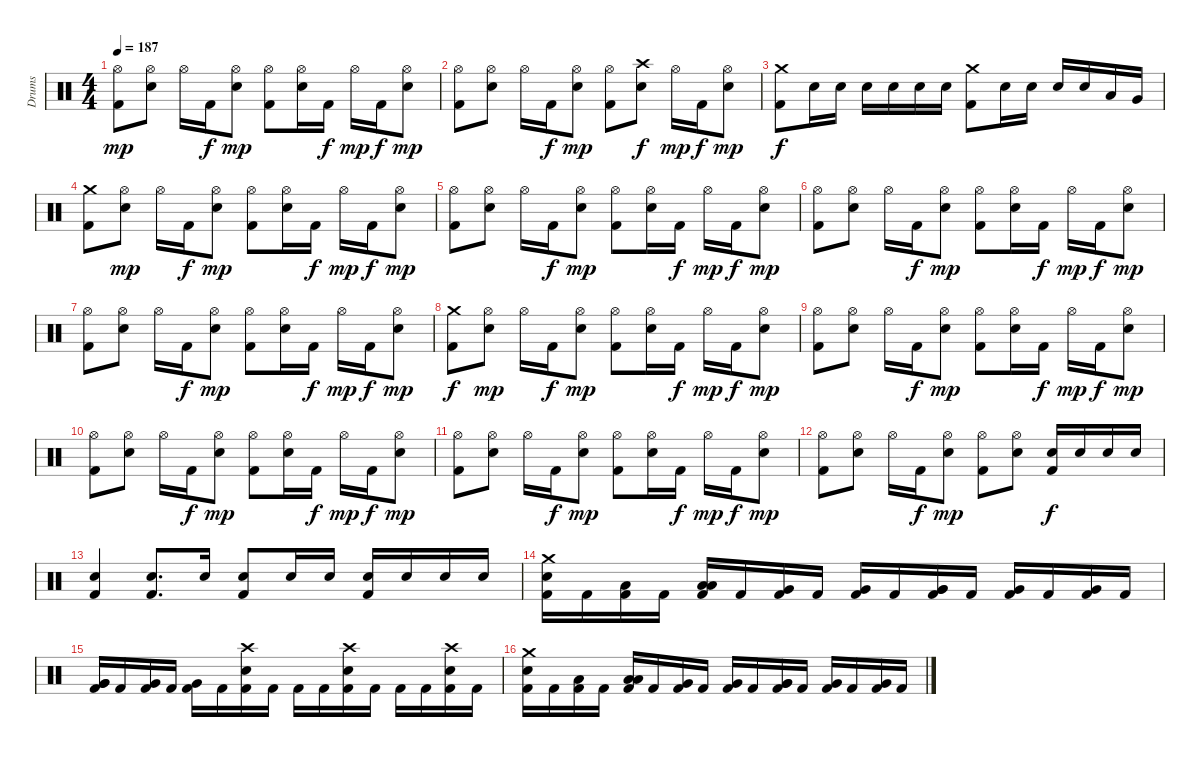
\track ("Drums" "Drums") {instrument percussion}
\staff {score}
\articulation defaults
\ts (4 4)
\tempo 187
\clef neutral
\ks c
("Hi-Hat (open)" "Kick (hit) 2").8{dy mp} ("Hi-Hat (open)" "Snare (hit) 2").8 "Hi-Hat (open)".16 "Kick (hit) 2".16{dy f} ("Hi-Hat (open)" "Snare (hit) 2").8{dy mp} ("Hi-Hat (open)" "Kick (hit) 2").8 ("Hi-Hat (open)" "Snare (hit) 2").16 "Kick (hit) 2".16{dy f} "Hi-Hat (open)".16{dy mp} "Kick (hit) 2".16{dy f} ("Hi-Hat (open)" "Snare (hit) 2").8{dy mp} |
("Hi-Hat (open)" "Kick (hit) 2").8 ("Hi-Hat (open)" "Snare (hit) 2").8 "Hi-Hat (open)".16 "Kick (hit) 2".16{dy f} ("Hi-Hat (open)" "Snare (hit) 2").8{dy mp} ("Hi-Hat (open)" "Kick (hit) 2").8 ("Crash high (hit)" "Snare (hit) 2").8{dy f} "Hi-Hat (open)".16{dy mp} "Kick (hit) 2".16{dy f} ("Hi-Hat (open)" "Snare (hit) 2").8{dy mp} |
("Crash medium (hit)" "Kick (hit) 2").8{dy f} "Snare (hit) 2".16 "Snare (hit) 2".16 "Snare (hit) 2".16 "Snare (hit) 2".16 "Snare (hit) 2".16 "Snare (hit) 2".16 ("Crash medium (hit)" "Kick (hit) 2").8 "Snare (hit) 2".16 "Snare (hit) 2".16 "Snare (hit) 2".16 "Snare (hit) 2".16 "Low Tom (hit)".16 "Very Low Tom (hit)".16 |
("Crash medium (hit)" "Kick (hit) 2").8 ("Hi-Hat (open)" "Snare (hit) 2").8{dy mp} "Hi-Hat (open)".16 "Kick (hit) 2".16{dy f} ("Hi-Hat (open)" "Snare (hit) 2").8{dy mp} ("Hi-Hat (open)" "Kick (hit) 2").8 ("Hi-Hat (open)" "Snare (hit) 2").16 "Kick (hit) 2".16{dy f} "Hi-Hat (open)".16{dy mp} "Kick (hit) 2".16{dy f} ("Hi-Hat (open)" "Snare (hit) 2").8{dy mp} |
("Hi-Hat (open)" "Kick (hit) 2").8 ("Hi-Hat (open)" "Snare (hit) 2").8 "Hi-Hat (open)".16 "Kick (hit) 2".16{dy f} ("Hi-Hat (open)" "Snare (hit) 2").8{dy mp} ("Hi-Hat (open)" "Kick (hit) 2").8 ("Hi-Hat (open)" "Snare (hit) 2").16 "Kick (hit) 2".16{dy f} "Hi-Hat (open)".16{dy mp} "Kick (hit) 2".16{dy f} ("Hi-Hat (open)" "Snare (hit) 2").8{dy mp} |
("Hi-Hat (open)" "Kick (hit) 2").8 ("Hi-Hat (open)" "Snare (hit) 2").8 "Hi-Hat (open)".16 "Kick (hit) 2".16{dy f} ("Hi-Hat (open)" "Snare (hit) 2").8{dy mp} ("Hi-Hat (open)" "Kick (hit) 2").8 ("Hi-Hat (open)" "Snare (hit) 2").16 "Kick (hit) 2".16{dy f} "Hi-Hat (open)".16{dy mp} "Kick (hit) 2".16{dy f} ("Hi-Hat (open)" "Snare (hit) 2").8{dy mp} |
("Hi-Hat (open)" "Kick (hit) 2").8 ("Hi-Hat (open)" "Snare (hit) 2").8 "Hi-Hat (open)".16 "Kick (hit) 2".16{dy f} ("Hi-Hat (open)" "Snare (hit) 2").8{dy mp} ("Hi-Hat (open)" "Kick (hit) 2").8 ("Hi-Hat (open)" "Snare (hit) 2").16 "Kick (hit) 2".16{dy f} "Hi-Hat (open)".16{dy mp} "Kick (hit) 2".16{dy f} ("Hi-Hat (open)" "Snare (hit) 2").8{dy mp} |
("Crash medium (hit)" "Kick (hit) 2").8{dy f} ("Hi-Hat (open)" "Snare (hit) 2").8{dy mp} "Hi-Hat (open)".16 "Kick (hit) 2".16{dy f} ("Hi-Hat (open)" "Snare (hit) 2").8{dy mp} ("Hi-Hat (open)" "Kick (hit) 2").8 ("Hi-Hat (open)" "Snare (hit) 2").16 "Kick (hit) 2".16{dy f} "Hi-Hat (open)".16{dy mp} "Kick (hit) 2".16{dy f} ("Hi-Hat (open)" "Snare (hit) 2").8{dy mp} |
("Hi-Hat (open)" "Kick (hit) 2").8 ("Hi-Hat (open)" "Snare (hit) 2").8 "Hi-Hat (open)".16 "Kick (hit) 2".16{dy f} ("Hi-Hat (open)" "Snare (hit) 2").8{dy mp} ("Hi-Hat (open)" "Kick (hit) 2").8 ("Hi-Hat (open)" "Snare (hit) 2").16 "Kick (hit) 2".16{dy f} "Hi-Hat (open)".16{dy mp} "Kick (hit) 2".16{dy f} ("Hi-Hat (open)" "Snare (hit) 2").8{dy mp} |
("Hi-Hat (open)" "Kick (hit) 2").8 ("Hi-Hat (open)" "Snare (hit) 2").8 "Hi-Hat (open)".16 "Kick (hit) 2".16{dy f} ("Hi-Hat (open)" "Snare (hit) 2").8{dy mp} ("Hi-Hat (open)" "Kick (hit) 2").8 ("Hi-Hat (open)" "Snare (hit) 2").16 "Kick (hit) 2".16{dy f} "Hi-Hat (open)".16{dy mp} "Kick (hit) 2".16{dy f} ("Hi-Hat (open)" "Snare (hit) 2").8{dy mp} |
("Hi-Hat (open)" "Kick (hit) 2").8 ("Hi-Hat (open)" "Snare (hit) 2").8 "Hi-Hat (open)".16 "Kick (hit) 2".16{dy f} ("Hi-Hat (open)" "Snare (hit) 2").8{dy mp} ("Hi-Hat (open)" "Kick (hit) 2").8 ("Hi-Hat (open)" "Snare (hit) 2").16 "Kick (hit) 2".16{dy f} "Hi-Hat (open)".16{dy mp} "Kick (hit) 2".16{dy f} ("Hi-Hat (open)" "Snare (hit) 2").8{dy mp} |
("Hi-Hat (open)" "Kick (hit) 2").8 ("Hi-Hat (open)" "Snare (hit) 2").8 "Hi-Hat (open)".16 "Kick (hit) 2".16{dy f} ("Hi-Hat (open)" "Snare (hit) 2").8{dy mp} ("Hi-Hat (open)" "Kick (hit) 2").8 ("Hi-Hat (open)" "Snare (hit) 2").8 ("Snare (hit) 2" "Kick (hit) 2").16{dy f} "Snare (hit) 2".16 "Snare (hit) 2".16 "Snare (hit) 2".16 |
("Snare (hit) 2" "Kick (hit) 2").4 ("Snare (hit) 2" "Kick (hit) 2").8{d} "Snare (hit) 2".16 ("Snare (hit) 2" "Kick (hit) 2").8 "Snare (hit) 2".16 "Snare (hit) 2".16 ("Snare (hit) 2" "Kick (hit) 2").16 "Snare (hit) 2".16 "Snare (hit) 2".16 "Snare (hit) 2".16 |
("Crash medium (hit)" "Snare (hit) 2" "Kick (hit) 2").16 "Kick (hit) 2".16 ("Low Floor Tom (hit)" "Kick (hit) 2").16 "Kick (hit) 2".16 ("Low Floor Tom (hit)" "Low Floor Tom (hit)" "Kick (hit) 2").16 "Kick (hit) 2".16 ("Very Low Tom (hit)" "Kick (hit) 2").16 "Kick (hit) 2".16 ("Very Low Tom (hit)" "Kick (hit) 2").16 "Kick (hit) 2".16 ("Very Low Tom (hit)" "Very Low Tom (hit)" "Kick (hit) 2").16 "Kick (hit) 2".16 ("Very Low Tom (hit)" "Kick (hit) 2").16 "Kick (hit) 2".16 ("Very Low Tom (hit)" "Kick (hit) 2").16 "Kick (hit) 2".16 |
("Very Low Tom (hit)" "Very Low Tom (hit)" "Kick (hit) 2").16 "Kick (hit) 2".16 ("Very Low Tom (hit)" "Kick (hit) 2").16 "Kick (hit) 2".16 ("Very Low Tom (hit)" "Kick (hit) 2").16 "Kick (hit) 2".16 ("Crash high (hit)" "Snare (hit) 2" "Kick (hit) 2").16 "Kick (hit) 2".16 "Kick (hit) 2".16 "Kick (hit) 2".16 ("Crash high (hit)" "Snare (hit) 2" "Kick (hit) 2").16 "Kick (hit) 2".16 "Kick (hit) 2".16 "Kick (hit) 2".16 ("Crash high (hit)" "Snare (hit) 2" "Kick (hit) 2").16 "Kick (hit) 2".16 |
("Crash medium (hit)" "Snare (hit) 2" "Kick (hit) 2").16 "Kick (hit) 2".16 ("Low Floor Tom (hit)" "Kick (hit) 2").16 "Kick (hit) 2".16 ("Low Floor Tom (hit)" "Low Floor Tom (hit)" "Kick (hit) 2").16 "Kick (hit) 2".16 ("Very Low Tom (hit)" "Kick (hit) 2").16 "Kick (hit) 2".16 ("Very Low Tom (hit)" "Kick (hit) 2").16 "Kick (hit) 2".16 ("Very Low Tom (hit)" "Very Low Tom (hit)" "Kick (hit) 2").16 "Kick (hit) 2".16 ("Very Low Tom (hit)" "Kick (hit) 2").16 "Kick (hit) 2".16 ("Very Low Tom (hit)" "Kick (hit) 2").16 "Kick (hit) 2".16
